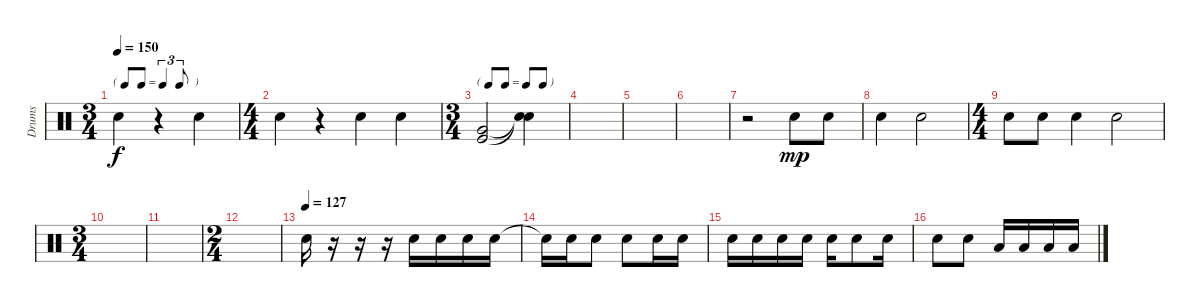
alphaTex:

\track ("Drums" "Drums") {instrument percussion}
\staff {score}
\articulation defaults
\ts (3 4)
\tf triplet8th
\tempo 150
\clef neutral
\ks c "Snare (hit) 2".4{dy f}
r.4 "Snare (hit) 2".4 |
\ts (4 4)
"Snare (hit) 2".4 r.4 "Snare (hit) 2".4 "Snare (hit) 2".4 |
\ts (3 4)
\tf none
("Very Low Tom (hit)" "Kick (hit)").2 ("Snare (hit)"{t} "Snare (hit)"{t}).4 |
|
|
|
r.2 "Snare (hit) 2".8{dy mp} "Snare (hit) 2".8 |
"Snare (hit) 2".4 "Snare (hit) 2".2 |
\ts (4 4)
"Snare (hit) 2".8 "Snare (hit) 2".8 "Snare (hit) 2".4 "Snare (hit) 2".2 |
\ts (3 4)
|
|
\ts (2 4)
|
\tempo (127)
"Snare (hit) 2".16 r.16 r.16 r.16 "Snare (hit) 2".16 "Snare (hit) 2".16 "Snare (hit) 2".16 "Snare (hit) 2".16 |
"Snare (hit)"{t}.16 "Snare (hit) 2".16 "Snare (hit) 2".8 "Snare (hit) 2".8 "Snare (hit) 2".16 "Snare (hit) 2".16 |
"Snare (hit) 2".16 "Snare (hit) 2".16 "Snare (hit) 2".16 "Snare (hit) 2".16 "Snare (hit) 2".16 "Snare (hit) 2".8 "Snare (hit) 2".16 |
"Snare (hit) 2".8 "Snare (hit) 2".8 "Low Tom (hit)".16 "Low Tom (hit)".16 "Low Tom (hit)".16 "Low Tom (hit)".16
